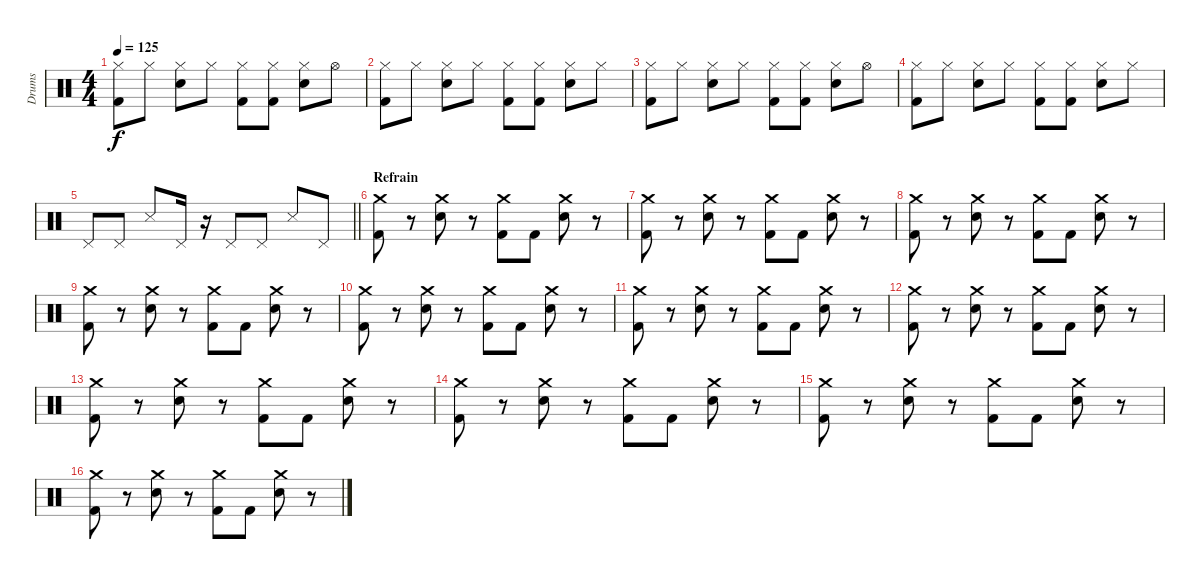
\track ("Drums" "Drums") {instrument percussion}
\staff {score}
\articulation defaults
\ts (4 4)
\tempo 125
\clef neutral
\ks c
("Hi-Hat (closed)" "Kick (hit) 2").8{dy f} "Hi-Hat (closed)".8 ("Hi-Hat (closed)" "Electric Snare (hit)").8 "Hi-Hat (closed)".8 ("Hi-Hat (closed)" "Kick (hit) 2").8 ("Hi-Hat (closed)" "Kick (hit) 2").8 ("Hi-Hat (closed)" "Electric Snare (hit)").8 "Hi-Hat (open)".8 |
("Hi-Hat (closed)" "Kick (hit) 2").8 "Hi-Hat (closed)".8 ("Hi-Hat (closed)" "Electric Snare (hit)").8 "Hi-Hat (closed)".8 ("Hi-Hat (closed)" "Kick (hit) 2").8 ("Hi-Hat (closed)" "Kick (hit) 2").8 ("Hi-Hat (closed)" "Electric Snare (hit)").8 "Hi-Hat (closed)".8 |
("Hi-Hat (closed)" "Kick (hit) 2").8 "Hi-Hat (closed)".8 ("Hi-Hat (closed)" "Electric Snare (hit)").8 "Hi-Hat (closed)".8 ("Hi-Hat (closed)" "Kick (hit) 2").8 ("Hi-Hat (closed)" "Kick (hit) 2").8 ("Hi-Hat (closed)" "Electric Snare (hit)").8 "Hi-Hat (open)".8 |
("Hi-Hat (closed)" "Kick (hit) 2").8 "Hi-Hat (closed)".8 ("Hi-Hat (closed)" "Electric Snare (hit)").8 "Hi-Hat (closed)".8 ("Hi-Hat (closed)" "Kick (hit) 2").8 ("Hi-Hat (closed)" "Kick (hit) 2").8 ("Hi-Hat (closed)" "Electric Snare (hit)").8 "Hi-Hat (closed)".8 |
\barLineRight lightlight "Pedal Hi-Hat (hit)".8 "Pedal Hi-Hat (hit)".8 "Snare (side stick) 3".8 "Pedal Hi-Hat (hit)".16
r.16 "Pedal Hi-Hat (hit)".8 "Pedal Hi-Hat (hit)".8 "Snare (side stick) 3".8 "Pedal Hi-Hat (hit)".8 |
\section ("" "Refrain")
("Crash medium (hit)" "Kick (hit) 2").8 r.8 ("Crash medium (hit)" "Electric Snare (hit)").8 r.8 ("Crash medium (hit)" "Kick (hit) 2").8 "Kick (hit) 2".8 ("Crash medium (hit)" "Electric Snare (hit)").8 r.8 |
("Crash medium (hit)" "Kick (hit) 2").8 r.8 ("Crash medium (hit)" "Electric Snare (hit)").8 r.8 ("Crash medium (hit)" "Kick (hit) 2").8 "Kick (hit) 2".8 ("Crash medium (hit)" "Electric Snare (hit)").8 r.8 |
("Crash medium (hit)" "Kick (hit) 2").8 r.8 ("Crash medium (hit)" "Electric Snare (hit)").8 r.8 ("Crash medium (hit)" "Kick (hit) 2").8 "Kick (hit) 2".8 ("Crash medium (hit)" "Electric Snare (hit)").8 r.8 |
("Crash medium (hit)" "Kick (hit) 2").8 r.8 ("Crash medium (hit)" "Electric Snare (hit)").8 r.8 ("Crash medium (hit)" "Kick (hit) 2").8 "Kick (hit) 2".8 ("Crash medium (hit)" "Electric Snare (hit)").8 r.8 |
("Crash medium (hit)" "Kick (hit) 2").8 r.8 ("Crash medium (hit)" "Electric Snare (hit)").8 r.8 ("Crash medium (hit)" "Kick (hit) 2").8 "Kick (hit) 2".8 ("Crash medium (hit)" "Electric Snare (hit)").8 r.8 |
("Crash medium (hit)" "Kick (hit) 2").8 r.8 ("Crash medium (hit)" "Electric Snare (hit)").8 r.8 ("Crash medium (hit)" "Kick (hit) 2").8 "Kick (hit) 2".8 ("Crash medium (hit)" "Electric Snare (hit)").8 r.8 |
("Crash medium (hit)" "Kick (hit) 2").8 r.8 ("Crash medium (hit)" "Electric Snare (hit)").8 r.8 ("Crash medium (hit)" "Kick (hit) 2").8 "Kick (hit) 2".8 ("Crash medium (hit)" "Electric Snare (hit)").8 r.8 |
("Crash medium (hit)" "Kick (hit) 2").8 r.8 ("Crash medium (hit)" "Electric Snare (hit)").8 r.8 ("Crash medium (hit)" "Kick (hit) 2").8 "Kick (hit) 2".8 ("Crash medium (hit)" "Electric Snare (hit)").8 r.8 |
("Crash medium (hit)" "Kick (hit) 2").8 r.8 ("Crash medium (hit)" "Electric Snare (hit)").8 r.8 ("Crash medium (hit)" "Kick (hit) 2").8 "Kick (hit) 2".8 ("Crash medium (hit)" "Electric Snare (hit)").8 r.8 |
("Crash medium (hit)" "Kick (hit) 2").8 r.8 ("Crash medium (hit)" "Electric Snare (hit)").8 r.8 ("Crash medium (hit)" "Kick (hit) 2").8 "Kick (hit) 2".8 ("Crash medium (hit)" "Electric Snare (hit)").8 r.8 |
("Crash medium (hit)" "Kick (hit) 2").8 r.8 ("Crash medium (hit)" "Electric Snare (hit)").8 r.8 ("Crash medium (hit)" "Kick (hit) 2").8 "Kick (hit) 2".8 ("Crash medium (hit)" "Electric Snare (hit)").8 r.8
